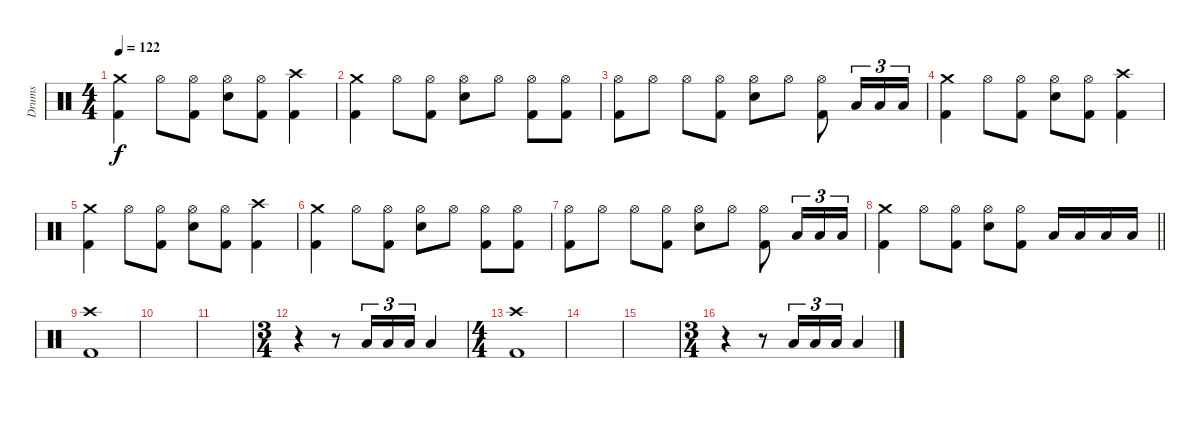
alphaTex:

\track ("Drums" "Drums") {instrument percussion}
\staff {score}
\articulation defaults
\ts (4 4)
\tempo 122
\clef neutral
\ks c
("Crash medium (hit)" "Kick (hit) 2").4{dy f} "Hi-Hat (open)".8 ("Hi-Hat (open)" "Kick (hit) 2").8 ("Hi-Hat (open)" "Electric Snare (hit)").8 ("Hi-Hat (open)" "Kick (hit) 2").8 ("Crash high (hit)" "Kick (hit) 2").4 |
("Crash medium (hit)" "Kick (hit) 2").4 "Hi-Hat (open)".8 ("Hi-Hat (open)" "Kick (hit) 2").8 ("Hi-Hat (open)" "Electric Snare (hit)").8 "Hi-Hat (open)".8 ("Hi-Hat (open)" "Kick (hit) 2").8 ("Hi-Hat (open)" "Kick (hit) 2").8 |
("Hi-Hat (open)" "Kick (hit) 2").8 "Hi-Hat (open)".8 "Hi-Hat (open)".8 ("Hi-Hat (open)" "Kick (hit) 2").8 ("Hi-Hat (open)" "Electric Snare (hit)").8 "Hi-Hat (open)".8 ("Hi-Hat (open)" "Kick (hit) 2").8 "Low Tom (hit)".16{tu (3 2)} "Low Tom (hit)".16{tu (3 2)} "Low Tom (hit)".16{tu (3 2)} |
("Crash medium (hit)" "Kick (hit) 2").4 "Hi-Hat (open)".8 ("Hi-Hat (open)" "Kick (hit) 2").8 ("Hi-Hat (open)" "Electric Snare (hit)").8 ("Hi-Hat (open)" "Kick (hit) 2").8 ("Crash high (hit)" "Kick (hit) 2").4 |
("Crash medium (hit)" "Kick (hit) 2").4 "Hi-Hat (open)".8 ("Hi-Hat (open)" "Kick (hit) 2").8 ("Hi-Hat (open)" "Electric Snare (hit)").8 ("Hi-Hat (open)" "Kick (hit) 2").8 ("Crash high (hit)" "Kick (hit) 2").4 |
("Crash medium (hit)" "Kick (hit) 2").4 "Hi-Hat (open)".8 ("Hi-Hat (open)" "Kick (hit) 2").8 ("Hi-Hat (open)" "Electric Snare (hit)").8 "Hi-Hat (open)".8 ("Hi-Hat (open)" "Kick (hit) 2").8 ("Hi-Hat (open)" "Kick (hit) 2").8 |
("Hi-Hat (open)" "Kick (hit) 2").8 "Hi-Hat (open)".8 "Hi-Hat (open)".8 ("Hi-Hat (open)" "Kick (hit) 2").8 ("Hi-Hat (open)" "Electric Snare (hit)").8 "Hi-Hat (open)".8 ("Hi-Hat (open)" "Kick (hit) 2").8 "Low Tom (hit)".16{tu (3 2)} "Low Tom (hit)".16{tu (3 2)} "Low Tom (hit)".16{tu (3 2)} |
\barLineRight lightlight
("Crash medium (hit)" "Kick (hit) 2").4 "Hi-Hat (open)".8 ("Hi-Hat (open)" "Kick (hit) 2").8 ("Hi-Hat (open)" "Electric Snare (hit)").8 ("Hi-Hat (open)" "Kick (hit) 2").8 "Low Tom (hit)".16 "Low Tom (hit)".16 "Low Tom (hit)".16 "Low Tom (hit)".16 |
\section ("" "")
("Crash high (hit)" "Kick (hit) 2").1 |
|
|
\ts (3 4)
r.4 r.8 "Low Tom (hit)".16{tu (3 2)} "Low Tom (hit)".16{tu (3 2)} "Low Tom (hit)".16{tu (3 2)} "Low Tom (hit)".4 |
\ts (4 4)
("Crash high (hit)" "Kick (hit) 2").1 |
|
|
\ts (3 4)
r.4 r.8 "Low Tom (hit)".16{tu (3 2)} "Low Tom (hit)".16{tu (3 2)} "Low Tom (hit)".16{tu (3 2)} "Low Tom (hit)".4
